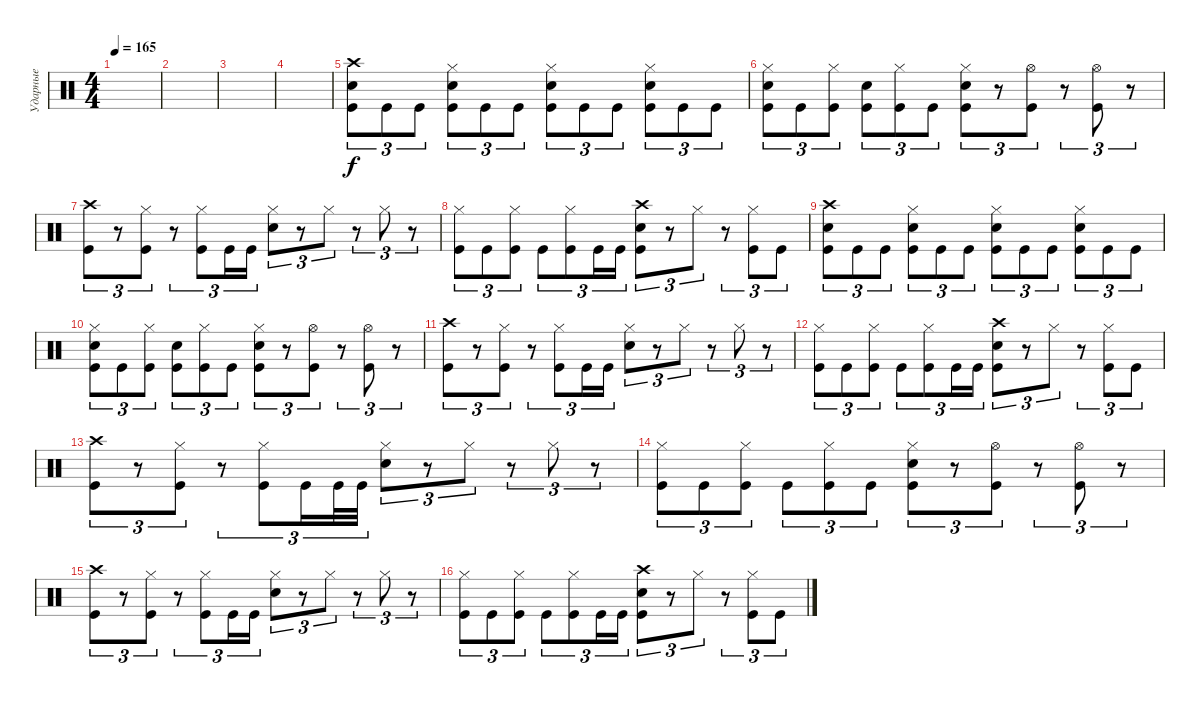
\track ("Ударные" "Ударные") {instrument percussion}
\staff {score}
\articulation defaults
\ts (4 4)
\tempo 165
\clef neutral
\ks c
|
|
|
|
("Crash high (hit)" "Electric Snare (hit)" "Kick (hit)").8{tu (3 2)} "Kick (hit)".8{tu (3 2)} "Kick (hit)".8{tu (3 2)} ("Hi-Hat (closed)" "Electric Snare (hit)" "Kick (hit)").8{tu (3 2)} "Kick (hit)".8{tu (3 2)} "Kick (hit)".8{tu (3 2)} ("Hi-Hat (closed)" "Electric Snare (hit)" "Kick (hit)").8{tu (3 2)} "Kick (hit)".8{tu (3 2)} "Kick (hit)".8{tu (3 2)} ("Hi-Hat (closed)" "Electric Snare (hit)" "Kick (hit)").8{tu (3 2)} "Kick (hit)".8{tu (3 2)} "Kick (hit)".8{tu (3 2)} |
("Hi-Hat (closed)" "Electric Snare (hit)" "Kick (hit)").8{tu (3 2)} "Kick (hit)".8{tu (3 2)} ("Hi-Hat (closed)" "Kick (hit)").8{tu (3 2)} ("Electric Snare (hit)" "Kick (hit)").8{tu (3 2)} ("Hi-Hat (closed)" "Kick (hit)").8{tu (3 2)} "Kick (hit)".8{tu (3 2)} ("Hi-Hat (closed)" "Electric Snare (hit)" "Kick (hit)").8{tu (3 2)} r.8{tu (3 2)} ("Hi-Hat (open)" "Kick (hit)").8{tu (3 2)} r.8{tu (3 2)} ("Hi-Hat (open)" "Kick (hit)").8{tu (3 2)} r.8{tu (3 2)} |
("Crash high (hit)" "Kick (hit)").8{tu (3 2)} r.8{tu (3 2)} ("Hi-Hat (closed)" "Kick (hit)").8{tu (3 2)} r.8{tu (3 2)} ("Hi-Hat (closed)" "Kick (hit)").8{tu (3 2)} "Kick (hit)".16{tu (3 2)} "Kick (hit)".16{tu (3 2)} ("Hi-Hat (closed)" "Electric Snare (hit)").8{tu (3 2)} r.8{tu (3 2)} "Hi-Hat (closed)".8{tu (3 2)} r.8{tu (3 2)} "Hi-Hat (closed)".8{tu (3 2)} r.8{tu (3 2)} |
("Hi-Hat (closed)" "Kick (hit)").8{tu (3 2)} "Kick (hit)".8{tu (3 2)} ("Hi-Hat (closed)" "Kick (hit)").8{tu (3 2)} "Kick (hit)".8{tu (3 2)} ("Hi-Hat (closed)" "Kick (hit)").8{tu (3 2)} "Kick (hit)".16{tu (3 2)} "Kick (hit)".16{tu (3 2)} ("Crash high (hit)" "Electric Snare (hit)" "Kick (hit)").8{tu (3 2)} r.8{tu (3 2)} "Hi-Hat (closed)".8{tu (3 2)} r.8{tu (3 2)} ("Hi-Hat (closed)" "Kick (hit)").8{tu (3 2)} "Kick (hit)".8{tu (3 2)} |
("Crash high (hit)" "Electric Snare (hit)" "Kick (hit)").8{tu (3 2)} "Kick (hit)".8{tu (3 2)} "Kick (hit)".8{tu (3 2)} ("Hi-Hat (closed)" "Electric Snare (hit)" "Kick (hit)").8{tu (3 2)} "Kick (hit)".8{tu (3 2)} "Kick (hit)".8{tu (3 2)} ("Hi-Hat (closed)" "Electric Snare (hit)" "Kick (hit)").8{tu (3 2)} "Kick (hit)".8{tu (3 2)} "Kick (hit)".8{tu (3 2)} ("Hi-Hat (closed)" "Electric Snare (hit)" "Kick (hit)").8{tu (3 2)} "Kick (hit)".8{tu (3 2)} "Kick (hit)".8{tu (3 2)} |
("Hi-Hat (closed)" "Electric Snare (hit)" "Kick (hit)").8{tu (3 2)} "Kick (hit)".8{tu (3 2)} ("Hi-Hat (closed)" "Kick (hit)").8{tu (3 2)} ("Electric Snare (hit)" "Kick (hit)").8{tu (3 2)} ("Hi-Hat (closed)" "Kick (hit)").8{tu (3 2)} "Kick (hit)".8{tu (3 2)} ("Hi-Hat (closed)" "Electric Snare (hit)" "Kick (hit)").8{tu (3 2)} r.8{tu (3 2)} ("Hi-Hat (open)" "Kick (hit)").8{tu (3 2)} r.8{tu (3 2)} ("Hi-Hat (open)" "Kick (hit)").8{tu (3 2)} r.8{tu (3 2)} |
("Crash high (hit)" "Kick (hit)").8{tu (3 2)} r.8{tu (3 2)} ("Hi-Hat (closed)" "Kick (hit)").8{tu (3 2)} r.8{tu (3 2)} ("Hi-Hat (closed)" "Kick (hit)").8{tu (3 2)} "Kick (hit)".16{tu (3 2)} "Kick (hit)".16{tu (3 2)} ("Hi-Hat (closed)" "Electric Snare (hit)").8{tu (3 2)} r.8{tu (3 2)} "Hi-Hat (closed)".8{tu (3 2)} r.8{tu (3 2)} "Hi-Hat (closed)".8{tu (3 2)} r.8{tu (3 2)} |
("Hi-Hat (closed)" "Kick (hit)").8{tu (3 2)} "Kick (hit)".8{tu (3 2)} ("Hi-Hat (closed)" "Kick (hit)").8{tu (3 2)} "Kick (hit)".8{tu (3 2)} ("Hi-Hat (closed)" "Kick (hit)").8{tu (3 2)} "Kick (hit)".16{tu (3 2)} "Kick (hit)".16{tu (3 2)} ("Crash high (hit)" "Electric Snare (hit)" "Kick (hit)").8{tu (3 2)} r.8{tu (3 2)} "Hi-Hat (closed)".8{tu (3 2)} r.8{tu (3 2)} ("Hi-Hat (closed)" "Kick (hit)").8{tu (3 2)} "Kick (hit)".8{tu (3 2)} |
("Crash high (hit)" "Kick (hit)").8{tu (3 2)} r.8{tu (3 2)} ("Hi-Hat (closed)" "Kick (hit)").8{tu (3 2)} r.8{tu (3 2)} ("Hi-Hat (closed)" "Kick (hit)").8{tu (3 2)} "Kick (hit)".16{tu (3 2)} "Kick (hit)".32{tu (3 2)} "Kick (hit)".32{tu (3 2)} ("Hi-Hat (closed)" "Electric Snare (hit)").8{tu (3 2)} r.8{tu (3 2)} "Hi-Hat (closed)".8{tu (3 2)} r.8{tu (3 2)} "Hi-Hat (closed)".8{tu (3 2)} r.8{tu (3 2)} |
("Hi-Hat (closed)" "Kick (hit)").8{tu (3 2)} "Kick (hit)".8{tu (3 2)} ("Hi-Hat (closed)" "Kick (hit)").8{tu (3 2)} "Kick (hit)".8{tu (3 2)} ("Hi-Hat (closed)" "Kick (hit)").8{tu (3 2)} "Kick (hit)".8{tu (3 2)} ("Hi-Hat (closed)" "Electric Snare (hit)" "Kick (hit)").8{tu (3 2)} r.8{tu (3 2)} ("Hi-Hat (open)" "Kick (hit)").8{tu (3 2)} r.8{tu (3 2)} ("Hi-Hat (open)" "Kick (hit)").8{tu (3 2)} r.8{tu (3 2)} |
("Crash high (hit)" "Kick (hit)").8{tu (3 2)} r.8{tu (3 2)} ("Hi-Hat (closed)" "Kick (hit)").8{tu (3 2)} r.8{tu (3 2)} ("Hi-Hat (closed)" "Kick (hit)").8{tu (3 2)} "Kick (hit)".16{tu (3 2)} "Kick (hit)".16{tu (3 2)} ("Hi-Hat (closed)" "Electric Snare (hit)").8{tu (3 2)} r.8{tu (3 2)} "Hi-Hat (closed)".8{tu (3 2)} r.8{tu (3 2)} "Hi-Hat (closed)".8{tu (3 2)} r.8{tu (3 2)} |
("Hi-Hat (closed)" "Kick (hit)").8{tu (3 2)} "Kick (hit)".8{tu (3 2)} ("Hi-Hat (closed)" "Kick (hit)").8{tu (3 2)} "Kick (hit)".8{tu (3 2)} ("Hi-Hat (closed)" "Kick (hit)").8{tu (3 2)} "Kick (hit)".16{tu (3 2)} "Kick (hit)".16{tu (3 2)} ("Crash high (hit)" "Electric Snare (hit)" "Kick (hit)").8{tu (3 2)} r.8{tu (3 2)} "Hi-Hat (closed)".8{tu (3 2)} r.8{tu (3 2)} ("Hi-Hat (closed)" "Kick (hit)").8{tu (3 2)} "Kick (hit)".8{tu (3 2)}
